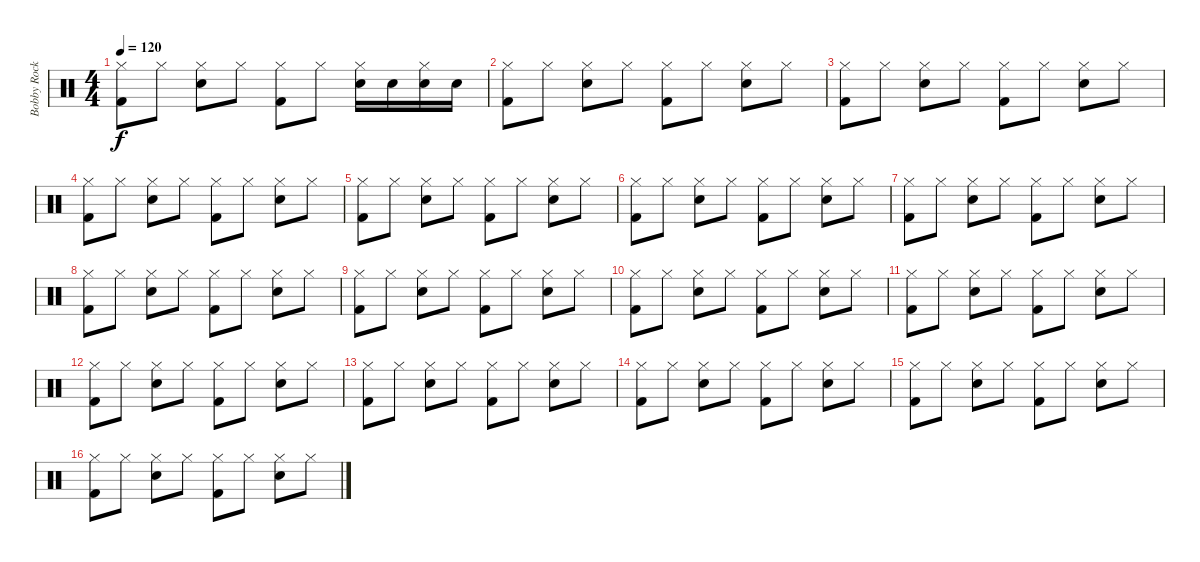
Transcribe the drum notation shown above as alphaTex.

\track ("Bobby Rock" "Bobby Rock") {instrument percussion}
\staff {score}
\articulation defaults
\ts (4 4)
\tempo 120
\clef neutral
\ks c
("Kick (hit) 2" "Hi-Hat (closed)").8{dy f} "Hi-Hat (closed)".8 ("Snare (hit) 2" "Hi-Hat (closed)").8 "Hi-Hat (closed)".8 ("Kick (hit) 2" "Hi-Hat (closed)").8 "Hi-Hat (closed)".8 ("Snare (hit) 2" "Hi-Hat (closed)").16 "Snare (hit) 2".16 ("Snare (hit) 2" "Hi-Hat (closed)").16 "Snare (hit) 2".16 |
("Kick (hit) 2" "Hi-Hat (closed)").8 "Hi-Hat (closed)".8 ("Snare (hit) 2" "Hi-Hat (closed)").8 "Hi-Hat (closed)".8 ("Kick (hit) 2" "Hi-Hat (closed)").8 "Hi-Hat (closed)".8 ("Snare (hit) 2" "Hi-Hat (closed)").8 "Hi-Hat (closed)".8 |
("Kick (hit) 2" "Hi-Hat (closed)").8 "Hi-Hat (closed)".8 ("Snare (hit) 2" "Hi-Hat (closed)").8 "Hi-Hat (closed)".8 ("Kick (hit) 2" "Hi-Hat (closed)").8 "Hi-Hat (closed)".8 ("Snare (hit) 2" "Hi-Hat (closed)").8 "Hi-Hat (closed)".8 |
("Kick (hit) 2" "Hi-Hat (closed)").8 "Hi-Hat (closed)".8 ("Snare (hit) 2" "Hi-Hat (closed)").8 "Hi-Hat (closed)".8 ("Kick (hit) 2" "Hi-Hat (closed)").8 "Hi-Hat (closed)".8 ("Snare (hit) 2" "Hi-Hat (closed)").8 "Hi-Hat (closed)".8 |
("Kick (hit) 2" "Hi-Hat (closed)").8 "Hi-Hat (closed)".8 ("Snare (hit) 2" "Hi-Hat (closed)").8 "Hi-Hat (closed)".8 ("Kick (hit) 2" "Hi-Hat (closed)").8 "Hi-Hat (closed)".8 ("Snare (hit) 2" "Hi-Hat (closed)").8 "Hi-Hat (closed)".8 |
("Kick (hit) 2" "Hi-Hat (closed)").8 "Hi-Hat (closed)".8 ("Snare (hit) 2" "Hi-Hat (closed)").8 "Hi-Hat (closed)".8 ("Kick (hit) 2" "Hi-Hat (closed)").8 "Hi-Hat (closed)".8 ("Snare (hit) 2" "Hi-Hat (closed)").8 "Hi-Hat (closed)".8 |
("Kick (hit) 2" "Hi-Hat (closed)").8 "Hi-Hat (closed)".8 ("Snare (hit) 2" "Hi-Hat (closed)").8 "Hi-Hat (closed)".8 ("Kick (hit) 2" "Hi-Hat (closed)").8 "Hi-Hat (closed)".8 ("Snare (hit) 2" "Hi-Hat (closed)").8 "Hi-Hat (closed)".8 |
("Kick (hit) 2" "Hi-Hat (closed)").8 "Hi-Hat (closed)".8 ("Snare (hit) 2" "Hi-Hat (closed)").8 "Hi-Hat (closed)".8 ("Kick (hit) 2" "Hi-Hat (closed)").8 "Hi-Hat (closed)".8 ("Snare (hit) 2" "Hi-Hat (closed)").8 "Hi-Hat (closed)".8 |
("Kick (hit) 2" "Hi-Hat (closed)").8 "Hi-Hat (closed)".8 ("Snare (hit) 2" "Hi-Hat (closed)").8 "Hi-Hat (closed)".8 ("Kick (hit) 2" "Hi-Hat (closed)").8 "Hi-Hat (closed)".8 ("Snare (hit) 2" "Hi-Hat (closed)").8 "Hi-Hat (closed)".8 |
("Kick (hit) 2" "Hi-Hat (closed)").8 "Hi-Hat (closed)".8 ("Snare (hit) 2" "Hi-Hat (closed)").8 "Hi-Hat (closed)".8 ("Kick (hit) 2" "Hi-Hat (closed)").8 "Hi-Hat (closed)".8 ("Snare (hit) 2" "Hi-Hat (closed)").8 "Hi-Hat (closed)".8 |
("Kick (hit) 2" "Hi-Hat (closed)").8 "Hi-Hat (closed)".8 ("Snare (hit) 2" "Hi-Hat (closed)").8 "Hi-Hat (closed)".8 ("Kick (hit) 2" "Hi-Hat (closed)").8 "Hi-Hat (closed)".8 ("Snare (hit) 2" "Hi-Hat (closed)").8 "Hi-Hat (closed)".8 |
("Kick (hit) 2" "Hi-Hat (closed)").8 "Hi-Hat (closed)".8 ("Snare (hit) 2" "Hi-Hat (closed)").8 "Hi-Hat (closed)".8 ("Kick (hit) 2" "Hi-Hat (closed)").8 "Hi-Hat (closed)".8 ("Snare (hit) 2" "Hi-Hat (closed)").8 "Hi-Hat (closed)".8 |
("Kick (hit) 2" "Hi-Hat (closed)").8 "Hi-Hat (closed)".8 ("Snare (hit) 2" "Hi-Hat (closed)").8 "Hi-Hat (closed)".8 ("Kick (hit) 2" "Hi-Hat (closed)").8 "Hi-Hat (closed)".8 ("Snare (hit) 2" "Hi-Hat (closed)").8 "Hi-Hat (closed)".8 |
("Kick (hit) 2" "Hi-Hat (closed)").8 "Hi-Hat (closed)".8 ("Snare (hit) 2" "Hi-Hat (closed)").8 "Hi-Hat (closed)".8 ("Kick (hit) 2" "Hi-Hat (closed)").8 "Hi-Hat (closed)".8 ("Snare (hit) 2" "Hi-Hat (closed)").8 "Hi-Hat (closed)".8 |
("Kick (hit) 2" "Hi-Hat (closed)").8 "Hi-Hat (closed)".8 ("Snare (hit) 2" "Hi-Hat (closed)").8 "Hi-Hat (closed)".8 ("Kick (hit) 2" "Hi-Hat (closed)").8 "Hi-Hat (closed)".8 ("Snare (hit) 2" "Hi-Hat (closed)").8 "Hi-Hat (closed)".8 |
("Kick (hit) 2" "Hi-Hat (closed)").8 "Hi-Hat (closed)".8 ("Snare (hit) 2" "Hi-Hat (closed)").8 "Hi-Hat (closed)".8 ("Kick (hit) 2" "Hi-Hat (closed)").8 "Hi-Hat (closed)".8 ("Snare (hit) 2" "Hi-Hat (closed)").8 "Hi-Hat (closed)".8
